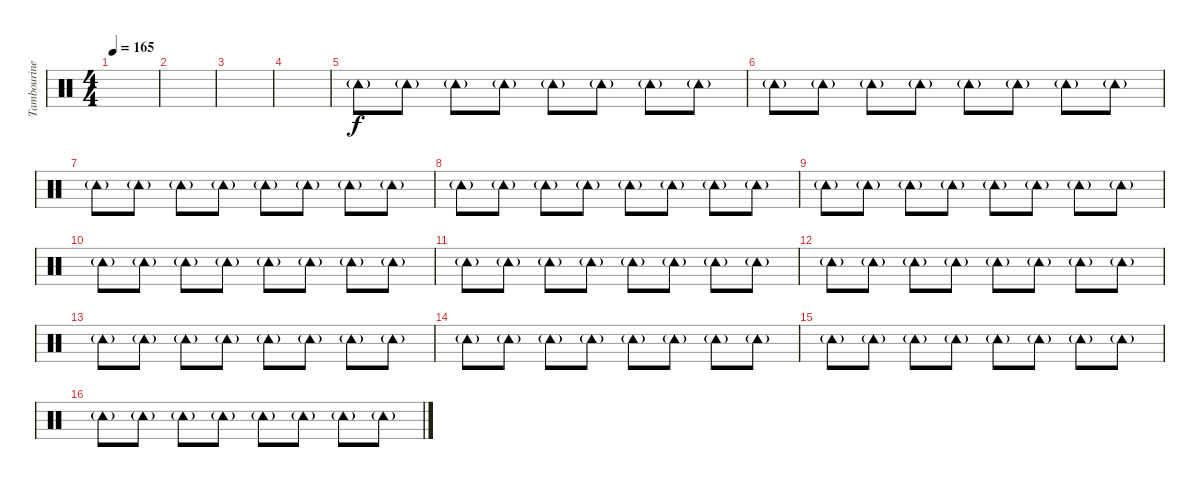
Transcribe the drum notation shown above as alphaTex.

\track ("Tambourine" "Tambourine") {instrument percussion}
\staff {score}
\articulation defaults
\ts (4 4)
\tempo 165
\clef neutral
\ks c
|
|
|
|
"Tambourine (hit)"{g}.8 "Tambourine (hit)"{g}.8 "Tambourine (hit)"{g}.8 "Tambourine (hit)"{g}.8 "Tambourine (hit)"{g}.8 "Tambourine (hit)"{g}.8 "Tambourine (hit)"{g}.8 "Tambourine (hit)"{g}.8 |
"Tambourine (hit)"{g}.8 "Tambourine (hit)"{g}.8 "Tambourine (hit)"{g}.8 "Tambourine (hit)"{g}.8 "Tambourine (hit)"{g}.8 "Tambourine (hit)"{g}.8 "Tambourine (hit)"{g}.8 "Tambourine (hit)"{g}.8 |
"Tambourine (hit)"{g}.8 "Tambourine (hit)"{g}.8 "Tambourine (hit)"{g}.8 "Tambourine (hit)"{g}.8 "Tambourine (hit)"{g}.8 "Tambourine (hit)"{g}.8 "Tambourine (hit)"{g}.8 "Tambourine (hit)"{g}.8 |
"Tambourine (hit)"{g}.8 "Tambourine (hit)"{g}.8 "Tambourine (hit)"{g}.8 "Tambourine (hit)"{g}.8 "Tambourine (hit)"{g}.8 "Tambourine (hit)"{g}.8 "Tambourine (hit)"{g}.8 "Tambourine (hit)"{g}.8 |
"Tambourine (hit)"{g}.8 "Tambourine (hit)"{g}.8 "Tambourine (hit)"{g}.8 "Tambourine (hit)"{g}.8 "Tambourine (hit)"{g}.8 "Tambourine (hit)"{g}.8 "Tambourine (hit)"{g}.8 "Tambourine (hit)"{g}.8 |
"Tambourine (hit)"{g}.8 "Tambourine (hit)"{g}.8 "Tambourine (hit)"{g}.8 "Tambourine (hit)"{g}.8 "Tambourine (hit)"{g}.8 "Tambourine (hit)"{g}.8 "Tambourine (hit)"{g}.8 "Tambourine (hit)"{g}.8 |
"Tambourine (hit)"{g}.8 "Tambourine (hit)"{g}.8 "Tambourine (hit)"{g}.8 "Tambourine (hit)"{g}.8 "Tambourine (hit)"{g}.8 "Tambourine (hit)"{g}.8 "Tambourine (hit)"{g}.8 "Tambourine (hit)"{g}.8 |
"Tambourine (hit)"{g}.8 "Tambourine (hit)"{g}.8 "Tambourine (hit)"{g}.8 "Tambourine (hit)"{g}.8 "Tambourine (hit)"{g}.8 "Tambourine (hit)"{g}.8 "Tambourine (hit)"{g}.8 "Tambourine (hit)"{g}.8 |
"Tambourine (hit)"{g}.8 "Tambourine (hit)"{g}.8 "Tambourine (hit)"{g}.8 "Tambourine (hit)"{g}.8 "Tambourine (hit)"{g}.8 "Tambourine (hit)"{g}.8 "Tambourine (hit)"{g}.8 "Tambourine (hit)"{g}.8 |
"Tambourine (hit)"{g}.8 "Tambourine (hit)"{g}.8 "Tambourine (hit)"{g}.8 "Tambourine (hit)"{g}.8 "Tambourine (hit)"{g}.8 "Tambourine (hit)"{g}.8 "Tambourine (hit)"{g}.8 "Tambourine (hit)"{g}.8 |
"Tambourine (hit)"{g}.8 "Tambourine (hit)"{g}.8 "Tambourine (hit)"{g}.8 "Tambourine (hit)"{g}.8 "Tambourine (hit)"{g}.8 "Tambourine (hit)"{g}.8 "Tambourine (hit)"{g}.8 "Tambourine (hit)"{g}.8 |
"Tambourine (hit)"{g}.8 "Tambourine (hit)"{g}.8 "Tambourine (hit)"{g}.8 "Tambourine (hit)"{g}.8 "Tambourine (hit)"{g}.8 "Tambourine (hit)"{g}.8 "Tambourine (hit)"{g}.8 "Tambourine (hit)"{g}.8
